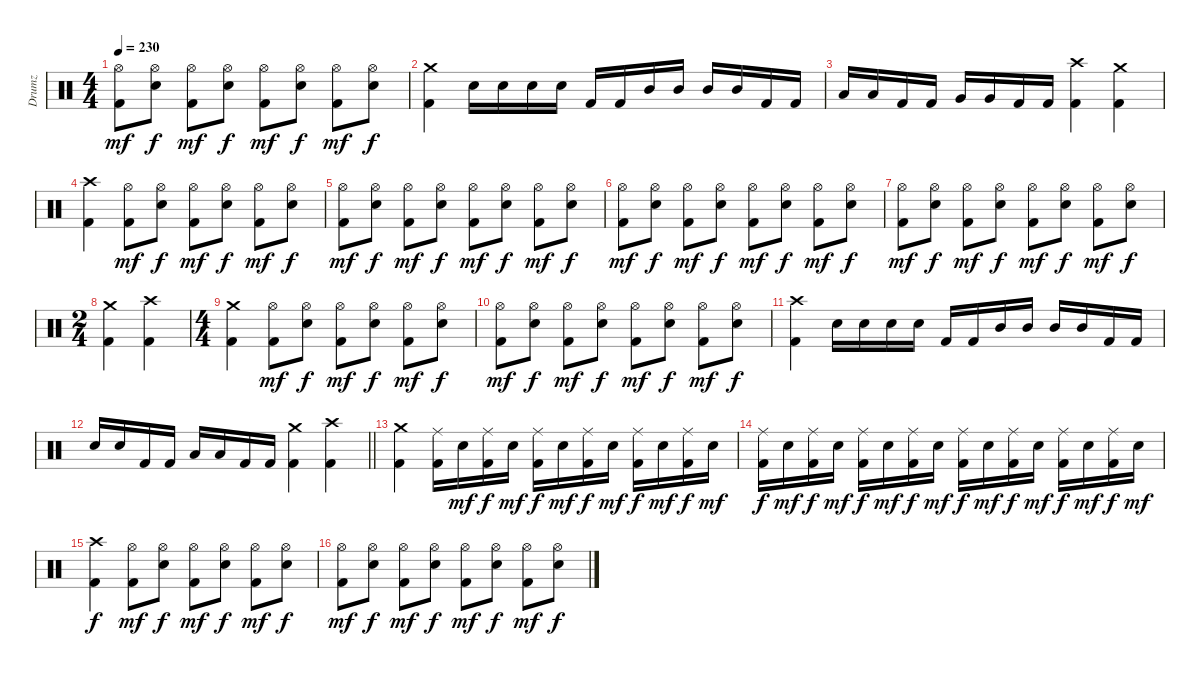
\track ("Drumz" "Drumz") {instrument percussion}
\staff {score}
\articulation defaults
\ts (4 4)
\tempo 230
\clef neutral
\ks c
("Hi-Hat (open)" "Kick (hit) 2").8{dy mf} ("Hi-Hat (open)" "Electric Snare (hit)").8{dy f} ("Hi-Hat (open)" "Kick (hit) 2").8{dy mf} ("Hi-Hat (open)" "Electric Snare (hit)").8{dy f} ("Hi-Hat (open)" "Kick (hit) 2").8{dy mf} ("Hi-Hat (open)" "Electric Snare (hit)").8{dy f} ("Hi-Hat (open)" "Kick (hit) 2").8{dy mf} ("Hi-Hat (open)" "Electric Snare (hit)").8{dy f} |
("Crash medium (hit)" "Kick (hit) 2").4 "Electric Snare (hit)".16 "Electric Snare (hit)".16 "Electric Snare (hit)".16 "Electric Snare (hit)".16 "Kick (hit) 2".16 "Kick (hit) 2".16 "Mid Tom (hit)".16 "Mid Tom (hit)".16 "Mid Tom (hit)".16 "Mid Tom (hit)".16 "Kick (hit) 2".16 "Kick (hit) 2".16 |
"Low Tom (hit)".16 "Low Tom (hit)".16 "Kick (hit) 2".16 "Kick (hit) 2".16 "Very Low Tom (hit)".16 "Very Low Tom (hit)".16 "Kick (hit) 2".16 "Kick (hit) 2".16 ("Crash high (hit)" "Kick (hit) 2").4 ("Crash medium (hit)" "Kick (hit) 2").4 |
("Crash high (hit)" "Kick (hit) 2").4 ("Hi-Hat (open)" "Kick (hit) 2").8{dy mf} ("Hi-Hat (open)" "Electric Snare (hit)").8{dy f} ("Hi-Hat (open)" "Kick (hit) 2").8{dy mf} ("Hi-Hat (open)" "Electric Snare (hit)").8{dy f} ("Hi-Hat (open)" "Kick (hit) 2").8{dy mf} ("Hi-Hat (open)" "Electric Snare (hit)").8{dy f} |
("Hi-Hat (open)" "Kick (hit) 2").8{dy mf} ("Hi-Hat (open)" "Electric Snare (hit)").8{dy f} ("Hi-Hat (open)" "Kick (hit) 2").8{dy mf} ("Hi-Hat (open)" "Electric Snare (hit)").8{dy f} ("Hi-Hat (open)" "Kick (hit) 2").8{dy mf} ("Hi-Hat (open)" "Electric Snare (hit)").8{dy f} ("Hi-Hat (open)" "Kick (hit) 2").8{dy mf} ("Hi-Hat (open)" "Electric Snare (hit)").8{dy f} |
("Hi-Hat (open)" "Kick (hit) 2").8{dy mf} ("Hi-Hat (open)" "Electric Snare (hit)").8{dy f} ("Hi-Hat (open)" "Kick (hit) 2").8{dy mf} ("Hi-Hat (open)" "Electric Snare (hit)").8{dy f} ("Hi-Hat (open)" "Kick (hit) 2").8{dy mf} ("Hi-Hat (open)" "Electric Snare (hit)").8{dy f} ("Hi-Hat (open)" "Kick (hit) 2").8{dy mf} ("Hi-Hat (open)" "Electric Snare (hit)").8{dy f} |
("Hi-Hat (open)" "Kick (hit) 2").8{dy mf} ("Hi-Hat (open)" "Electric Snare (hit)").8{dy f} ("Hi-Hat (open)" "Kick (hit) 2").8{dy mf} ("Hi-Hat (open)" "Electric Snare (hit)").8{dy f} ("Hi-Hat (open)" "Kick (hit) 2").8{dy mf} ("Hi-Hat (open)" "Electric Snare (hit)").8{dy f} ("Hi-Hat (open)" "Kick (hit) 2").8{dy mf} ("Hi-Hat (open)" "Electric Snare (hit)").8{dy f} |
\ts (2 4)
("Crash medium (hit)" "Kick (hit) 2").4 ("Crash high (hit)" "Kick (hit) 2").4 |
\ts (4 4)
("Crash medium (hit)" "Kick (hit) 2").4 ("Hi-Hat (open)" "Kick (hit) 2").8{dy mf} ("Hi-Hat (open)" "Electric Snare (hit)").8{dy f} ("Hi-Hat (open)" "Kick (hit) 2").8{dy mf} ("Hi-Hat (open)" "Electric Snare (hit)").8{dy f} ("Hi-Hat (open)" "Kick (hit) 2").8{dy mf} ("Hi-Hat (open)" "Electric Snare (hit)").8{dy f} |
("Hi-Hat (open)" "Kick (hit) 2").8{dy mf} ("Hi-Hat (open)" "Electric Snare (hit)").8{dy f} ("Hi-Hat (open)" "Kick (hit) 2").8{dy mf} ("Hi-Hat (open)" "Electric Snare (hit)").8{dy f} ("Hi-Hat (open)" "Kick (hit) 2").8{dy mf} ("Hi-Hat (open)" "Electric Snare (hit)").8{dy f} ("Hi-Hat (open)" "Kick (hit) 2").8{dy mf} ("Hi-Hat (open)" "Electric Snare (hit)").8{dy f} |
("Crash high (hit)" "Kick (hit) 2").4 "Electric Snare (hit)".16 "Electric Snare (hit)".16 "Electric Snare (hit)".16 "Electric Snare (hit)".16 "Kick (hit) 2".16 "Kick (hit) 2".16 "Mid Tom (hit)".16 "Mid Tom (hit)".16 "Mid Tom (hit)".16 "Mid Tom (hit)".16 "Kick (hit) 2".16 "Kick (hit) 2".16 |
\barLineRight lightlight "Electric Snare (hit)".16 "Electric Snare (hit)".16 "Kick (hit) 2".16 "Kick (hit) 2".16 "Low Tom (hit)".16 "Low Tom (hit)".16 "Kick (hit) 2".16 "Kick (hit) 2".16
("Crash medium (hit)" "Kick (hit) 2").4 ("Crash high (hit)" "Kick (hit) 2").4 |
\section ("" "")
("Crash medium (hit)" "Kick (hit) 2").4 ("Ride (middle)" "Kick (hit) 2").16 "Electric Snare (hit)".16{dy mf} ("Ride (middle)" "Kick (hit) 2").16{dy f} "Electric Snare (hit)".16{dy mf} ("Ride (middle)" "Kick (hit) 2").16{dy f} "Electric Snare (hit)".16{dy mf} ("Ride (middle)" "Kick (hit) 2").16{dy f} "Electric Snare (hit)".16{dy mf} ("Ride (middle)" "Kick (hit) 2").16{dy f} "Electric Snare (hit)".16{dy mf} ("Ride (middle)" "Kick (hit) 2").16{dy f} "Electric Snare (hit)".16{dy mf} |
("Ride (middle)" "Kick (hit) 2").16{dy f} "Electric Snare (hit)".16{dy mf} ("Ride (middle)" "Kick (hit) 2").16{dy f} "Electric Snare (hit)".16{dy mf} ("Ride (middle)" "Kick (hit) 2").16{dy f} "Electric Snare (hit)".16{dy mf} ("Ride (middle)" "Kick (hit) 2").16{dy f} "Electric Snare (hit)".16{dy mf} ("Ride (middle)" "Kick (hit) 2").16{dy f} "Electric Snare (hit)".16{dy mf} ("Ride (middle)" "Kick (hit) 2").16{dy f} "Electric Snare (hit)".16{dy mf} ("Ride (middle)" "Kick (hit) 2").16{dy f} "Electric Snare (hit)".16{dy mf} ("Ride (middle)" "Kick (hit) 2").16{dy f} "Electric Snare (hit)".16{dy mf} |
("Crash high (hit)" "Kick (hit) 2").4{dy f} ("Hi-Hat (open)" "Kick (hit) 2").8{dy mf} ("Hi-Hat (open)" "Electric Snare (hit)").8{dy f} ("Hi-Hat (open)" "Kick (hit) 2").8{dy mf} ("Hi-Hat (open)" "Electric Snare (hit)").8{dy f} ("Hi-Hat (open)" "Kick (hit) 2").8{dy mf} ("Hi-Hat (open)" "Electric Snare (hit)").8{dy f} |
("Hi-Hat (open)" "Kick (hit) 2").8{dy mf} ("Hi-Hat (open)" "Electric Snare (hit)").8{dy f} ("Hi-Hat (open)" "Kick (hit) 2").8{dy mf} ("Hi-Hat (open)" "Electric Snare (hit)").8{dy f} ("Hi-Hat (open)" "Kick (hit) 2").8{dy mf} ("Hi-Hat (open)" "Electric Snare (hit)").8{dy f} ("Hi-Hat (open)" "Kick (hit) 2").8{dy mf} ("Hi-Hat (open)" "Electric Snare (hit)").8{dy f}
